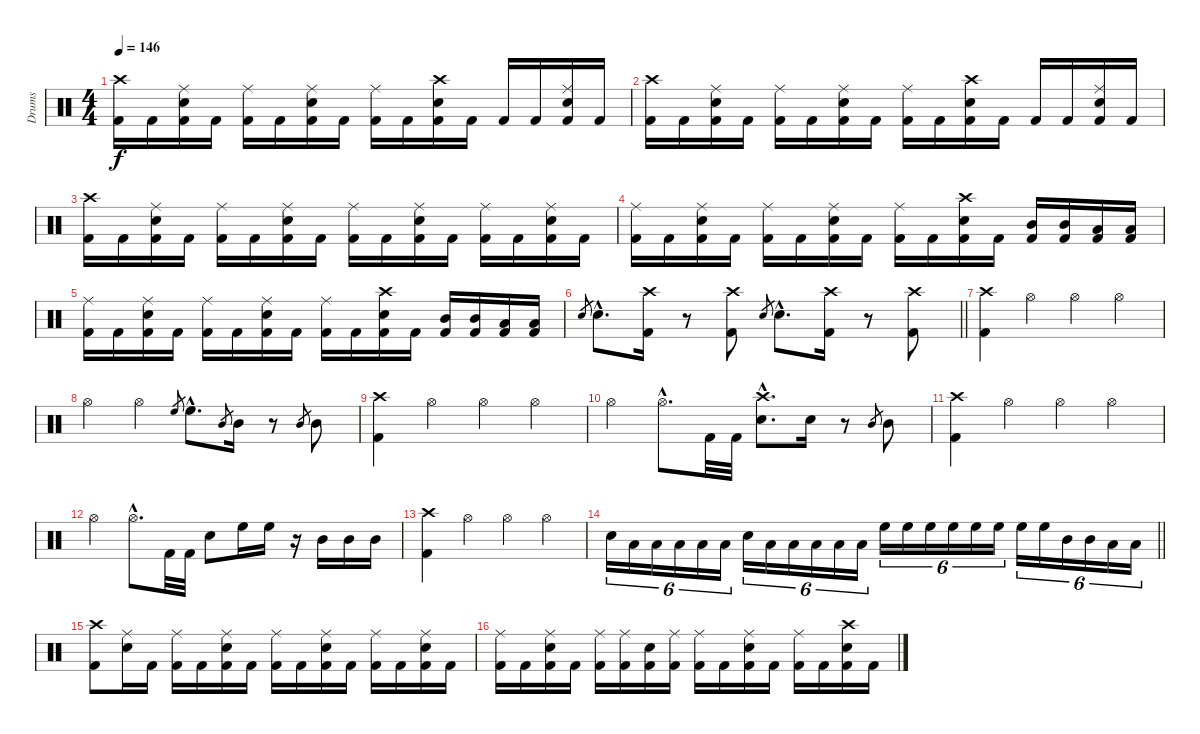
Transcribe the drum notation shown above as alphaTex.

\track ("Drums" "Drums") {instrument percussion}
\staff {score}
\articulation defaults
\ts (4 4)
\tempo 146
\clef neutral
\ks c
("Crash high (hit)" "Kick (hit) 2").16{dy f} "Kick (hit) 2".16 ("Ride (middle)" "Snare (hit) 2" "Kick (hit) 2").16 "Kick (hit) 2".16 ("Ride (middle)" "Kick (hit) 2").16 "Kick (hit) 2".16 ("Ride (middle)" "Snare (hit) 2" "Kick (hit) 2").16 "Kick (hit) 2".16 ("Ride (middle)" "Kick (hit) 2").16 "Kick (hit) 2".16 ("Crash high (hit)" "Snare (hit) 2" "Kick (hit) 2").16 "Kick (hit) 2".16 "Kick (hit) 2".16 "Kick (hit) 2".16 ("Ride (middle)" "Snare (hit) 2" "Kick (hit) 2").16 "Kick (hit) 2".16 |
("Crash high (hit)" "Kick (hit) 2").16 "Kick (hit) 2".16 ("Ride (middle)" "Snare (hit) 2" "Kick (hit) 2").16 "Kick (hit) 2".16 ("Ride (middle)" "Kick (hit) 2").16 "Kick (hit) 2".16 ("Ride (middle)" "Snare (hit) 2" "Kick (hit) 2").16 "Kick (hit) 2".16 ("Ride (middle)" "Kick (hit) 2").16 "Kick (hit) 2".16 ("Crash high (hit)" "Snare (hit) 2" "Kick (hit) 2").16 "Kick (hit) 2".16 "Kick (hit) 2".16 "Kick (hit) 2".16 ("Ride (middle)" "Snare (hit) 2" "Kick (hit) 2").16 "Kick (hit) 2".16 |
("Crash high (hit)" "Kick (hit) 2").16 "Kick (hit) 2".16 ("Ride (middle)" "Snare (hit) 2" "Kick (hit) 2").16 "Kick (hit) 2".16 ("Ride (middle)" "Kick (hit) 2").16 "Kick (hit) 2".16 ("Ride (middle)" "Snare (hit) 2" "Kick (hit) 2").16 "Kick (hit) 2".16 ("Ride (middle)" "Kick (hit) 2").16 "Kick (hit) 2".16 ("Ride (middle)" "Snare (hit) 2" "Kick (hit) 2").16 "Kick (hit) 2".16 ("Ride (middle)" "Kick (hit) 2").16 "Kick (hit) 2".16 ("Ride (middle)" "Snare (hit) 2" "Kick (hit) 2").16 "Kick (hit) 2".16 |
("Ride (middle)" "Kick (hit) 2").16 "Kick (hit) 2".16 ("Ride (middle)" "Snare (hit) 2" "Kick (hit) 2").16 "Kick (hit) 2".16 ("Ride (middle)" "Kick (hit) 2").16 "Kick (hit) 2".16 ("Ride (middle)" "Snare (hit) 2" "Kick (hit) 2").16 "Kick (hit) 2".16 ("Ride (middle)" "Kick (hit) 2").16 "Kick (hit) 2".16 ("Crash high (hit)" "Snare (hit) 2" "Kick (hit) 2").16 "Kick (hit) 2".16 ("Mid Tom (hit)" "Kick (hit) 2").16 ("Mid Tom (hit)" "Kick (hit) 2").16 ("Low Floor Tom (hit)" "Kick (hit) 2").16 ("Low Floor Tom (hit)" "Kick (hit) 2").16 |
("Ride (middle)" "Kick (hit) 2").16 "Kick (hit) 2".16 ("Ride (middle)" "Snare (hit) 2" "Kick (hit) 2").16 "Kick (hit) 2".16 ("Ride (middle)" "Kick (hit) 2").16 "Kick (hit) 2".16 ("Ride (middle)" "Snare (hit) 2" "Kick (hit) 2").16 "Kick (hit) 2".16 ("Ride (middle)" "Kick (hit) 2").16 "Kick (hit) 2".16 ("Crash high (hit)" "Snare (hit) 2" "Kick (hit) 2").16 "Kick (hit) 2".16 ("Mid Tom (hit)" "Kick (hit) 2").16 ("Mid Tom (hit)" "Kick (hit) 2").16 ("Low Floor Tom (hit)" "Kick (hit) 2").16 ("Low Floor Tom (hit)" "Kick (hit) 2").16 |
\barLineRight lightlight "Snare (hit) 2".8{gr} "Snare (hit) 2"{hac}.8{d}
("Crash high (hit)" "Kick (hit) 2").16 r.8 ("Crash high (hit)" "Kick (hit) 2").8 "Snare (hit) 2".8{gr} "Snare (hit) 2"{hac}.8{d} ("Crash high (hit)" "Kick (hit) 2").16 r.8 ("Crash high (hit)" "Kick (hit) 2").8 |
("Crash high (hit)" "Kick (hit) 2").4 "Hi-Hat (open)".4 "Hi-Hat (open)".4 "Hi-Hat (open)".4 |
"Hi-Hat (open)".4 "Hi-Hat (open)".4 "High Floor Tom (hit)".8{gr} "High Floor Tom (hit)"{hac}.8{d} "Mid Tom (hit)".8{gr} "Mid Tom (hit)".16 r.8 "Mid Tom (hit)".8{gr} "Mid Tom (hit)".8 |
("Crash high (hit)" "Kick (hit) 2").4 "Hi-Hat (open)".4 "Hi-Hat (open)".4 "Hi-Hat (open)".4 |
"Hi-Hat (open)".4 "Hi-Hat (open)"{hac}.8{d} "Kick (hit) 2".32 "Kick (hit) 2".32 ("Crash high (hit)"{hac} "Snare (hit) 2"{hac}).8{d} "Snare (hit) 2".16 r.8 "Mid Tom (hit)".8{gr} "Mid Tom (hit)".8 |
("Crash high (hit)" "Kick (hit) 2").4 "Hi-Hat (open)".4 "Hi-Hat (open)".4 "Hi-Hat (open)".4 |
"Hi-Hat (open)".4 "Hi-Hat (open)"{hac}.8{d} "Kick (hit) 2".32 "Kick (hit) 2".32 "Snare (hit) 2".8 "High Floor Tom (hit)".16 "High Floor Tom (hit)".16 r.16 "Mid Tom (hit)".16 "Mid Tom (hit)".16 "Mid Tom (hit)".16 |
("Crash high (hit)" "Kick (hit) 2").4 "Hi-Hat (open)".4 "Hi-Hat (open)".4 "Hi-Hat (open)".4 |
\barLineRight lightlight "Snare (hit) 2".16{tu (6 4)} "Low Floor Tom (hit)".16{tu (6 4)} "Low Floor Tom (hit)".16{tu (6 4)} "Low Floor Tom (hit)".16{tu (6 4)} "Low Floor Tom (hit)".16{tu (6 4)} "Low Floor Tom (hit)".16{tu (6 4)} "Snare (hit) 2".16{tu (6 4)} "Low Floor Tom (hit)".16{tu (6 4)} "Low Floor Tom (hit)".16{tu (6 4)} "Low Floor Tom (hit)".16{tu (6 4)} "Low Floor Tom (hit)".16{tu (6 4)} "Low Floor Tom (hit)".16{tu (6 4)} "High Floor Tom (hit)".16{tu (6 4)} "High Floor Tom (hit)".16{tu (6 4)} "High Floor Tom (hit)".16{tu (6 4)} "High Floor Tom (hit)".16{tu (6 4)} "High Floor Tom (hit)".16{tu (6 4)} "High Floor Tom (hit)".16{tu (6 4)} "High Floor Tom (hit)".16{tu (6 4)} "High Floor Tom (hit)".16{tu (6 4)} "Mid Tom (hit)".16{tu (6 4)} "Mid Tom (hit)".16{tu (6 4)} "Low Floor Tom (hit)".16{tu (6 4)} "Low Floor Tom (hit)".16{tu (6 4)}
|
("Crash high (hit)" "Kick (hit) 2").8 ("Ride (middle)" "Snare (hit) 2").16 "Kick (hit) 2".16 ("Ride (middle)" "Kick (hit) 2").16 "Kick (hit) 2".16 ("Ride (middle)" "Snare (hit) 2" "Kick (hit) 2").16 "Kick (hit) 2".16 ("Ride (middle)" "Kick (hit) 2").16 "Kick (hit) 2".16 ("Ride (middle)" "Snare (hit) 2" "Kick (hit) 2").16 "Kick (hit) 2".16 ("Ride (middle)" "Kick (hit) 2").16 "Kick (hit) 2".16 ("Ride (middle)" "Snare (hit) 2" "Kick (hit) 2").16 "Kick (hit) 2".16 |
("Ride (middle)" "Kick (hit) 2").16 "Kick (hit) 2".16 ("Ride (middle)" "Snare (hit) 2" "Kick (hit) 2").16 "Kick (hit) 2".16 ("Ride (middle)" "Kick (hit) 2").16 ("Ride (middle)" "Kick (hit) 2").16 ("Snare (hit) 2" "Kick (hit) 2").16 ("Ride (middle)" "Kick (hit) 2").16 ("Ride (middle)" "Kick (hit) 2").16 "Kick (hit) 2".16 ("Ride (middle)" "Snare (hit) 2" "Kick (hit) 2").16 "Kick (hit) 2".16 ("Ride (middle)" "Kick (hit) 2").16 "Kick (hit) 2".16 ("Crash high (hit)" "Snare (hit) 2" "Kick (hit) 2").16 "Kick (hit) 2".16
